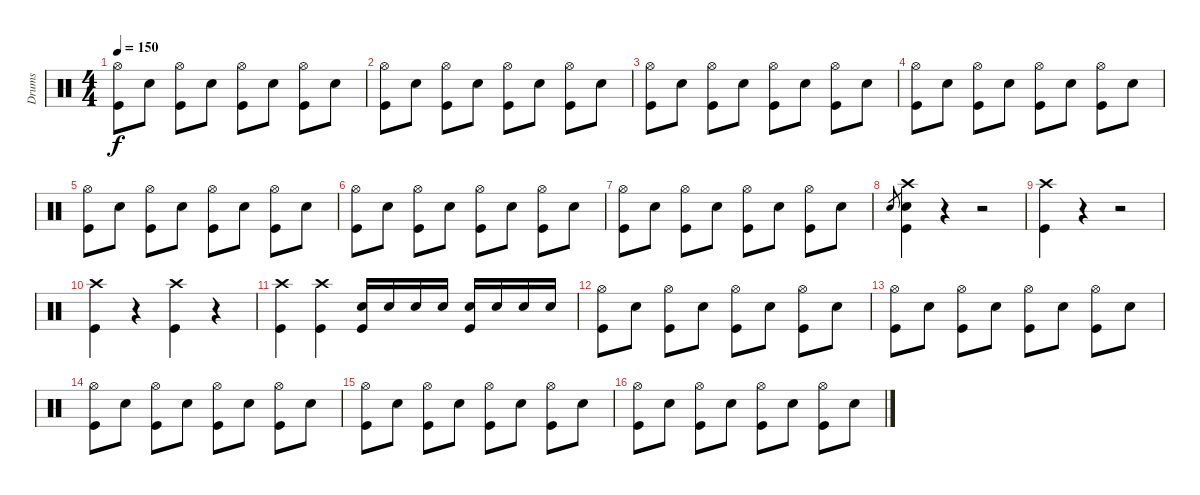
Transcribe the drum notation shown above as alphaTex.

\track ("Drums" "Drums") {instrument percussion}
\staff {score}
\articulation defaults
\ts (4 4)
\tempo 150
\clef neutral
\ks c
("Hi-Hat (open)" "Kick (hit)").8{dy f} "Electric Snare (hit)".8 ("Hi-Hat (open)" "Kick (hit)").8 "Electric Snare (hit)".8 ("Hi-Hat (open)" "Kick (hit)").8 "Electric Snare (hit)".8 ("Hi-Hat (open)" "Kick (hit)").8 "Electric Snare (hit)".8 |
("Hi-Hat (open)" "Kick (hit)").8 "Electric Snare (hit)".8 ("Hi-Hat (open)" "Kick (hit)").8 "Electric Snare (hit)".8 ("Hi-Hat (open)" "Kick (hit)").8 "Electric Snare (hit)".8 ("Hi-Hat (open)" "Kick (hit)").8 "Electric Snare (hit)".8 |
("Hi-Hat (open)" "Kick (hit)").8 "Electric Snare (hit)".8 ("Hi-Hat (open)" "Kick (hit)").8 "Electric Snare (hit)".8 ("Hi-Hat (open)" "Kick (hit)").8 "Electric Snare (hit)".8 ("Hi-Hat (open)" "Kick (hit)").8 "Electric Snare (hit)".8 |
("Hi-Hat (open)" "Kick (hit)").8 "Electric Snare (hit)".8 ("Hi-Hat (open)" "Kick (hit)").8 "Electric Snare (hit)".8 ("Hi-Hat (open)" "Kick (hit)").8 "Electric Snare (hit)".8 ("Hi-Hat (open)" "Kick (hit)").8 "Electric Snare (hit)".8 |
("Hi-Hat (open)" "Kick (hit)").8 "Electric Snare (hit)".8 ("Hi-Hat (open)" "Kick (hit)").8 "Electric Snare (hit)".8 ("Hi-Hat (open)" "Kick (hit)").8 "Electric Snare (hit)".8 ("Hi-Hat (open)" "Kick (hit)").8 "Electric Snare (hit)".8 |
("Hi-Hat (open)" "Kick (hit)").8 "Electric Snare (hit)".8 ("Hi-Hat (open)" "Kick (hit)").8 "Electric Snare (hit)".8 ("Hi-Hat (open)" "Kick (hit)").8 "Electric Snare (hit)".8 ("Hi-Hat (open)" "Kick (hit)").8 "Electric Snare (hit)".8 |
("Hi-Hat (open)" "Kick (hit)").8 "Electric Snare (hit)".8 ("Hi-Hat (open)" "Kick (hit)").8 "Electric Snare (hit)".8 ("Hi-Hat (open)" "Kick (hit)").8 "Electric Snare (hit)".8 ("Hi-Hat (open)" "Kick (hit)").8 "Electric Snare (hit)".8 |
"Electric Snare (hit)".8{gr} ("Electric Snare (hit)" "Crash high (hit)" "Kick (hit)").4 r.4 r.2 |
("Crash high (hit)" "Kick (hit)").4 r.4 r.2 |
("Crash high (hit)" "Kick (hit)").4 r.4 ("Crash high (hit)" "Kick (hit)").4 r.4 |
("Crash high (hit)" "Kick (hit)").4 ("Crash high (hit)" "Kick (hit)").4 ("Electric Snare (hit)" "Kick (hit)").16 "Electric Snare (hit)".16 "Electric Snare (hit)".16 "Electric Snare (hit)".16 ("Electric Snare (hit)" "Kick (hit)").16 "Electric Snare (hit)".16 "Electric Snare (hit)".16 "Electric Snare (hit)".16 |
("Hi-Hat (open)" "Kick (hit)").8 "Electric Snare (hit)".8 ("Hi-Hat (open)" "Kick (hit)").8 "Electric Snare (hit)".8 ("Hi-Hat (open)" "Kick (hit)").8 "Electric Snare (hit)".8 ("Hi-Hat (open)" "Kick (hit)").8 "Electric Snare (hit)".8 |
("Hi-Hat (open)" "Kick (hit)").8 "Electric Snare (hit)".8 ("Hi-Hat (open)" "Kick (hit)").8 "Electric Snare (hit)".8 ("Hi-Hat (open)" "Kick (hit)").8 "Electric Snare (hit)".8 ("Hi-Hat (open)" "Kick (hit)").8 "Electric Snare (hit)".8 |
("Hi-Hat (open)" "Kick (hit)").8 "Electric Snare (hit)".8 ("Hi-Hat (open)" "Kick (hit)").8 "Electric Snare (hit)".8 ("Hi-Hat (open)" "Kick (hit)").8 "Electric Snare (hit)".8 ("Hi-Hat (open)" "Kick (hit)").8 "Electric Snare (hit)".8 |
("Hi-Hat (open)" "Kick (hit)").8 "Electric Snare (hit)".8 ("Hi-Hat (open)" "Kick (hit)").8 "Electric Snare (hit)".8 ("Hi-Hat (open)" "Kick (hit)").8 "Electric Snare (hit)".8 ("Hi-Hat (open)" "Kick (hit)").8 "Electric Snare (hit)".8 |
("Hi-Hat (open)" "Kick (hit)").8 "Electric Snare (hit)".8 ("Hi-Hat (open)" "Kick (hit)").8 "Electric Snare (hit)".8 ("Hi-Hat (open)" "Kick (hit)").8 "Electric Snare (hit)".8 ("Hi-Hat (open)" "Kick (hit)").8 "Electric Snare (hit)".8
